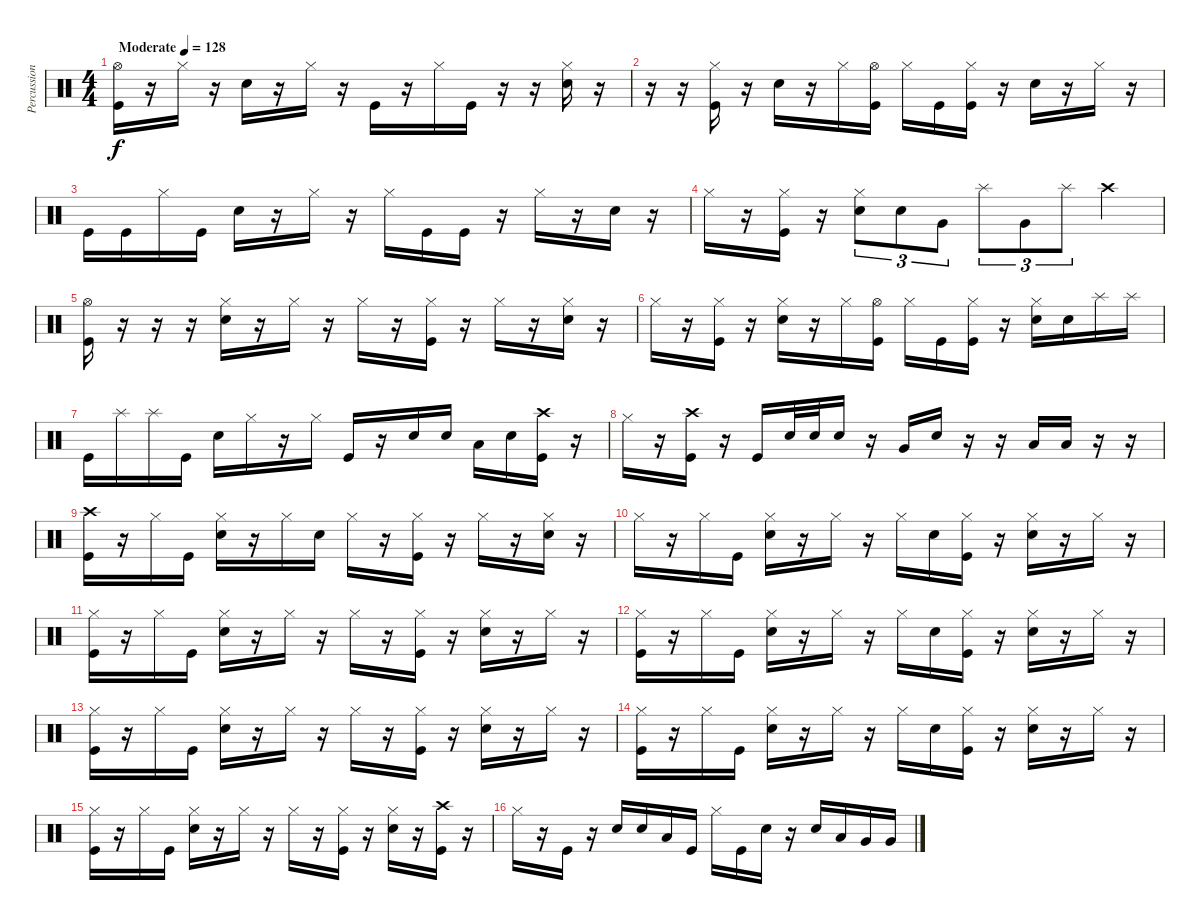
\track ("Percussion" "Percussion") {instrument percussion bank 177}
\staff {score}
\articulation defaults
\ts (4 4)
\tempo (128 "Moderate")
\clef neutral
\ks c
("Hi-Hat (open)" "Kick (hit)").16{dy f} r.16 "Hi-Hat (closed)".16 r.16 "Electric Snare (hit)".16 r.16 "Hi-Hat (closed)".16 r.16 "Kick (hit)".16 r.16 "Hi-Hat (closed)".16 "Kick (hit)".16 r.16 r.16 ("Hi-Hat (closed)" "Electric Snare (hit)").16 r.16 |
r.16 r.16 ("Hi-Hat (closed)" "Kick (hit)").16 r.16 "Electric Snare (hit)".16 r.16 "Hi-Hat (closed)".16 ("Hi-Hat (open)" "Kick (hit)").16 "Hi-Hat (closed)".16 "Kick (hit)".16 ("Hi-Hat (closed)" "Kick (hit)").16 r.16 "Electric Snare (hit)".16 r.16 "Hi-Hat (closed)".16 r.16 |
"Kick (hit)".16 "Kick (hit)".16 "Hi-Hat (closed)".16 "Kick (hit)".16 "Electric Snare (hit)".16 r.16 "Hi-Hat (closed)".16 r.16 "Hi-Hat (closed)".16 "Kick (hit)".16 "Kick (hit)".16 r.16 "Hi-Hat (closed)".16 r.16 "Electric Snare (hit)".16 r.16 |
"Hi-Hat (closed)".16 r.16 ("Hi-Hat (closed)" "Kick (hit)").16 r.16 ("Hi-Hat (closed)" "Electric Snare (hit)").8{tu (3 2)} "Electric Snare (hit)".8{tu (3 2)} "Very Low Tom (hit)".8{tu (3 2)} "Splash (hit)".8{tu (3 2)} "Very Low Tom (hit)".8{tu (3 2)} "Splash (hit)".8{tu (3 2)} "Crash high (hit)".4 |
("Hi-Hat (open)" "Kick (hit)").16 r.16 r.16 r.16 ("Hi-Hat (closed)" "Electric Snare (hit)").16 r.16 "Hi-Hat (closed)".16 r.16 "Hi-Hat (closed)".16 r.16 ("Hi-Hat (closed)" "Kick (hit)").16 r.16 "Hi-Hat (closed)".16 r.16 ("Hi-Hat (closed)" "Electric Snare (hit)").16 r.16 |
"Hi-Hat (closed)".16 r.16 ("Hi-Hat (closed)" "Kick (hit)").16 r.16 ("Hi-Hat (closed)" "Electric Snare (hit)").16 r.16 "Hi-Hat (closed)".16 ("Hi-Hat (open)" "Kick (hit)").16 "Hi-Hat (closed)".16 "Kick (hit)".16 ("Hi-Hat (closed)" "Kick (hit)").16 r.16 ("Hi-Hat (closed)" "Electric Snare (hit)").16 "Electric Snare (hit)".16 "Splash (hit)".16 "Splash (hit)".16 |
"Kick (hit)".16 "Splash (hit)".16 "Splash (hit)".16 "Kick (hit)".16 "Electric Snare (hit)".16 "Hi-Hat (closed)".16 r.16 "Hi-Hat (closed)".16 "Kick (hit)".16 r.16 "Electric Snare (hit)".16 "Electric Snare (hit)".16 "Low Tom (hit)".16 "Electric Snare (hit)".16 ("Crash high (hit)" "Kick (hit)").16 r.16 |
"Hi-Hat (closed)".16 r.16 ("Crash high (hit)" "Kick (hit)").16 r.16 "Kick (hit)".16 "Electric Snare (hit)".32 "Electric Snare (hit)".32 "Electric Snare (hit)".16 r.16 "Very Low Tom (hit)".16 "Electric Snare (hit)".16 r.16 r.16 "Low Floor Tom (hit)".16 "Low Floor Tom (hit)".16 r.16 r.16 |
("Crash high (hit)" "Kick (hit)").16 r.16 "Hi-Hat (closed)".16 "Kick (hit)".16 ("Hi-Hat (closed)" "Electric Snare (hit)").16 r.16 "Hi-Hat (closed)".16 "Electric Snare (hit)".16 "Hi-Hat (closed)".16 r.16 ("Hi-Hat (closed)" "Kick (hit)").16 r.16 "Hi-Hat (closed)".16 r.16 ("Hi-Hat (closed)" "Electric Snare (hit)").16 r.16 |
"Hi-Hat (closed)".16 r.16 "Hi-Hat (closed)".16 "Kick (hit)".16 ("Hi-Hat (closed)" "Electric Snare (hit)").16 r.16 "Hi-Hat (closed)".16 r.16 "Hi-Hat (closed)".16 "Electric Snare (hit)".16 ("Hi-Hat (closed)" "Kick (hit)").16 r.16 ("Hi-Hat (closed)" "Electric Snare (hit)").16 r.16 "Hi-Hat (closed)".16 r.16 |
("Hi-Hat (closed)" "Kick (hit)").16 r.16 "Hi-Hat (closed)".16 "Kick (hit)".16 ("Hi-Hat (closed)" "Electric Snare (hit)").16 r.16 "Hi-Hat (closed)".16 r.16 "Hi-Hat (closed)".16 r.16 ("Hi-Hat (closed)" "Kick (hit)").16 r.16 ("Hi-Hat (closed)" "Electric Snare (hit)").16 r.16 "Hi-Hat (closed)".16 r.16 |
("Hi-Hat (closed)" "Kick (hit)").16 r.16 "Hi-Hat (closed)".16 "Kick (hit)".16 ("Hi-Hat (closed)" "Electric Snare (hit)").16 r.16 "Hi-Hat (closed)".16 r.16 "Hi-Hat (closed)".16 "Electric Snare (hit)".16 ("Hi-Hat (closed)" "Kick (hit)").16 r.16 ("Hi-Hat (closed)" "Electric Snare (hit)").16 r.16 "Hi-Hat (closed)".16 r.16 |
("Hi-Hat (closed)" "Kick (hit)").16 r.16 "Hi-Hat (closed)".16 "Kick (hit)".16 ("Hi-Hat (closed)" "Electric Snare (hit)").16 r.16 "Hi-Hat (closed)".16 r.16 "Hi-Hat (closed)".16 r.16 ("Hi-Hat (closed)" "Kick (hit)").16 r.16 ("Hi-Hat (closed)" "Electric Snare (hit)").16 r.16 "Hi-Hat (closed)".16 r.16 |
("Hi-Hat (closed)" "Kick (hit)").16 r.16 "Hi-Hat (closed)".16 "Kick (hit)".16 ("Hi-Hat (closed)" "Electric Snare (hit)").16 r.16 "Hi-Hat (closed)".16 r.16 "Hi-Hat (closed)".16 "Electric Snare (hit)".16 ("Hi-Hat (closed)" "Kick (hit)").16 r.16 ("Hi-Hat (closed)" "Electric Snare (hit)").16 r.16 "Hi-Hat (closed)".16 r.16 |
("Hi-Hat (closed)" "Kick (hit)").16 r.16 "Hi-Hat (closed)".16 "Kick (hit)".16 ("Hi-Hat (closed)" "Electric Snare (hit)").16 r.16 "Hi-Hat (closed)".16 r.16 "Hi-Hat (closed)".16 r.16 ("Hi-Hat (closed)" "Kick (hit)").16 r.16 ("Hi-Hat (closed)" "Electric Snare (hit)").16 r.16 ("Crash high (hit)" "Kick (hit)").16 r.16 |
"Hi-Hat (closed)".16 r.16 "Kick (hit)".16 r.16 "Electric Snare (hit)".16 "Electric Snare (hit)".16 "Low Tom (hit)".16 "Kick (hit)".16 "Hi-Hat (closed)".16 "Kick (hit)".16 "Electric Snare (hit)".16 r.16 "Electric Snare (hit)".16 "Low Tom (hit)".16 "Very Low Tom (hit)".16 "Very Low Tom (hit)".16
